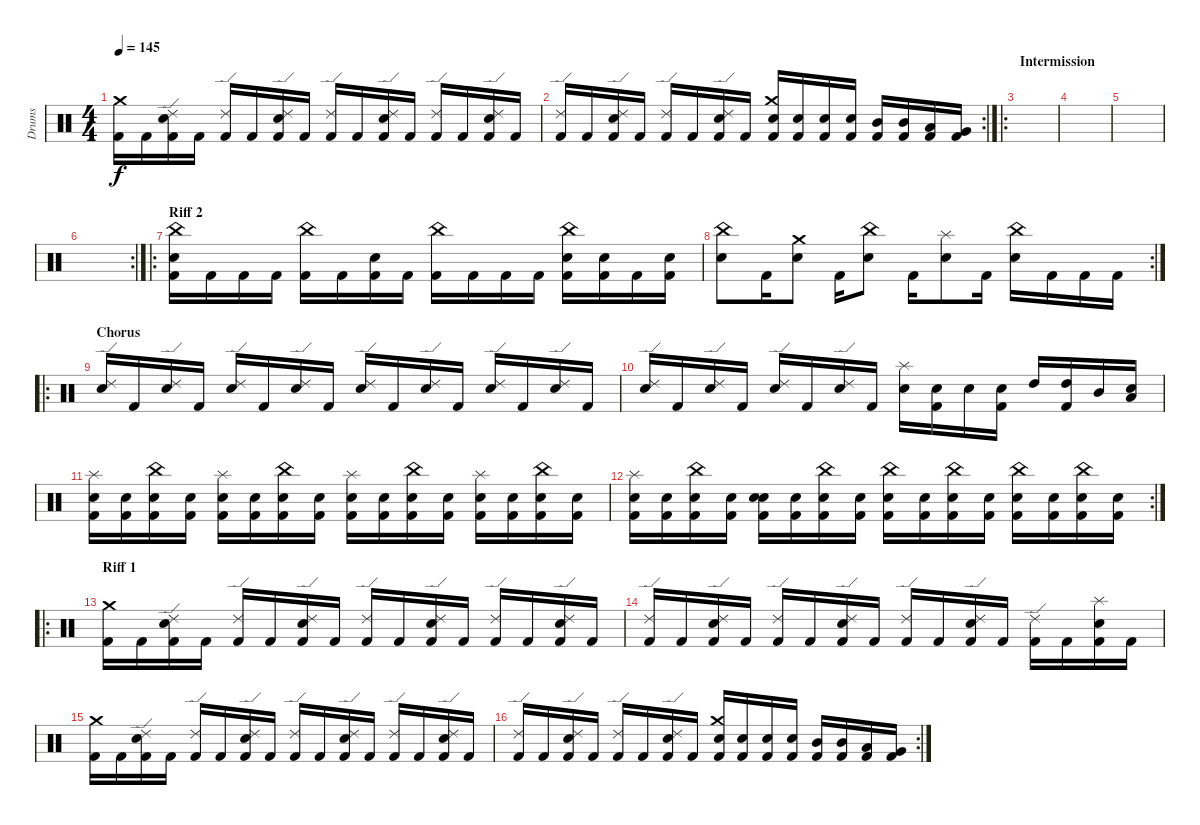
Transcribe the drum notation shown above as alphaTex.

\track ("Drums" "Drums") {instrument percussion}
\staff {score}
\articulation defaults
\ts (4 4)
\tempo 145
\clef neutral
\ks c
("Kick (hit) 2" "Crash medium (hit)").16{dy f} "Kick (hit) 2".16 ("Kick (hit) 2" "Snare (hit) 2" "Ride (edge) 2").16 "Kick (hit) 2".16 ("Kick (hit) 2" "Ride (edge) 2").16 "Kick (hit) 2".16 ("Kick (hit) 2" "Snare (hit) 2" "Ride (edge) 2").16 "Kick (hit) 2".16 ("Kick (hit) 2" "Ride (edge) 2").16 "Kick (hit) 2".16 ("Kick (hit) 2" "Snare (hit) 2" "Ride (edge) 2").16 "Kick (hit) 2".16 ("Kick (hit) 2" "Ride (edge) 2").16 "Kick (hit) 2".16 ("Kick (hit) 2" "Snare (hit) 2" "Ride (edge) 2").16 "Kick (hit) 2".16 |
\rc 2
("Kick (hit) 2" "Ride (edge) 2").16 "Kick (hit) 2".16 ("Kick (hit) 2" "Snare (hit) 2" "Ride (edge) 2").16 "Kick (hit) 2".16 ("Kick (hit) 2" "Ride (edge) 2").16 "Kick (hit) 2".16 ("Kick (hit) 2" "Snare (hit) 2" "Ride (edge) 2").16 "Kick (hit) 2".16 ("Kick (hit) 2" "Snare (hit) 2" "Crash medium (hit)").16 ("Kick (hit) 2" "Snare (hit) 2").16 ("Kick (hit) 2" "Snare (hit) 2").16 ("Kick (hit) 2" "Snare (hit) 2").16 ("Kick (hit) 2" "Mid Tom (hit)").16 ("Kick (hit) 2" "Mid Tom (hit)").16 ("Kick (hit) 2" "Low Tom (hit)").16 ("Kick (hit) 2" "Very Low Tom (hit)").16 |
\ro
\section ("" "Intermission")
|
|
|
\rc 2
|
\ro
\section ("" "Riff 2")
("Kick (hit) 2" "Snare (hit) 2" "China (hit)").16 "Kick (hit) 2".16 "Kick (hit) 2".16 "Kick (hit) 2".16 ("Kick (hit) 2" "China (hit)").16 "Kick (hit) 2".16 ("Kick (hit) 2" "Snare (hit) 2").16 "Kick (hit) 2".16 ("Kick (hit) 2" "China (hit)").16 "Kick (hit) 2".16 "Kick (hit) 2".16 "Kick (hit) 2".16 ("Kick (hit) 2" "Snare (hit) 2" "China (hit)").16 ("Kick (hit) 2" "Snare (hit) 2").16 "Kick (hit) 2".16 ("Kick (hit) 2" "Snare (hit) 2").16 |
\rc 2
("Snare (hit) 2" "China (hit)").8 "Kick (hit) 2".16 ("Snare (hit) 2" "Crash medium (hit)").8 "Kick (hit) 2".16 ("Snare (hit) 2" "China (hit)").8 "Kick (hit) 2".16 ("Splash (hit)" "Snare (hit) 2").8 "Kick (hit) 2".16 ("China (hit)" "Snare (hit) 2").16 "Kick (hit) 2".16 "Kick (hit) 2".16 "Kick (hit) 2".16 |
\ro
\section ("" "Chorus")
("Snare (hit) 2" "Ride (edge) 2").16 "Kick (hit) 2".16 ("Snare (hit) 2" "Ride (edge) 2").16 "Kick (hit) 2".16 ("Snare (hit) 2" "Ride (edge) 2").16 "Kick (hit) 2".16 ("Snare (hit) 2" "Ride (edge) 2").16 "Kick (hit) 2".16 ("Snare (hit) 2" "Ride (edge) 2").16 "Kick (hit) 2".16 ("Snare (hit) 2" "Ride (edge) 2").16 "Kick (hit) 2".16 ("Snare (hit) 2" "Ride (edge) 2").16 "Kick (hit) 2".16 ("Snare (hit) 2" "Ride (edge) 2").16 "Kick (hit) 2".16 |
("Snare (hit) 2" "Ride (edge) 2").16 "Kick (hit) 2".16 ("Snare (hit) 2" "Ride (edge) 2").16 "Kick (hit) 2".16 ("Snare (hit) 2" "Ride (edge) 2").16 "Kick (hit) 2".16 ("Snare (hit) 2" "Ride (edge) 2").16 "Kick (hit) 2".16 ("Snare (hit) 2" "Splash (hit)").16 ("Kick (hit) 2" "Snare (hit) 2").16 "Snare (hit) 2".16 ("Kick (hit) 2" "Snare (hit) 2").16 "High Tom (hit)".16 ("Kick (hit) 2" "High Tom (hit)").16 "Mid Tom (hit)".16 ("Snare (hit)" "Low Tom (hit)").16 |
("Kick (hit) 2" "Snare (hit) 2" "Splash (hit)").16 ("Kick (hit) 2" "Snare (hit) 2").16 ("Kick (hit) 2" "Snare (hit) 2" "China (hit)").16 ("Kick (hit) 2" "Snare (hit) 2").16 ("Kick (hit) 2" "Snare (hit) 2" "Splash (hit)").16 ("Kick (hit) 2" "Snare (hit) 2").16 ("Kick (hit) 2" "Snare (hit) 2" "China (hit)").16 ("Kick (hit) 2" "Snare (hit) 2").16 ("Kick (hit) 2" "Snare (hit) 2" "Splash (hit)").16 ("Kick (hit) 2" "Snare (hit) 2").16 ("Kick (hit) 2" "Snare (hit) 2" "China (hit)").16 ("Kick (hit) 2" "Snare (hit) 2").16 ("Kick (hit) 2" "Snare (hit) 2" "Splash (hit)").16 ("Kick (hit) 2" "Snare (hit) 2").16 ("Kick (hit) 2" "Snare (hit) 2" "China (hit)").16 ("Kick (hit) 2" "Snare (hit) 2").16 |
\rc 2
("Kick (hit) 2" "Snare (hit) 2" "Splash (hit)").16 ("Kick (hit) 2" "Snare (hit) 2").16 ("Kick (hit) 2" "Snare (hit) 2" "China (hit)").16 ("Kick (hit) 2" "Snare (hit) 2").16 ("Kick (hit) 2" "Snare (hit) 2" "Snare (hit)").16 ("Kick (hit) 2" "Snare (hit) 2").16 ("Kick (hit) 2" "Snare (hit) 2" "China (hit)").16 ("Kick (hit) 2" "Snare (hit) 2").16 ("Kick (hit) 2" "Snare (hit) 2" "China (hit)").16 ("Kick (hit) 2" "Snare (hit) 2").16 ("Kick (hit) 2" "Snare (hit) 2" "China (hit)").16 ("Kick (hit) 2" "Snare (hit) 2").16 ("Kick (hit) 2" "Snare (hit) 2" "China (hit)").16 ("Kick (hit) 2" "Snare (hit) 2").16 ("Kick (hit) 2" "Snare (hit) 2" "China (hit)").16 ("Kick (hit) 2" "Snare (hit) 2").16 |
\ro
\section ("" "Riff 1")
("Kick (hit) 2" "Crash medium (hit)").16 "Kick (hit) 2".16 ("Kick (hit) 2" "Snare (hit) 2" "Ride (edge) 2").16 "Kick (hit) 2".16 ("Kick (hit) 2" "Ride (edge) 2").16 "Kick (hit) 2".16 ("Kick (hit) 2" "Snare (hit) 2" "Ride (edge) 2").16 "Kick (hit) 2".16 ("Kick (hit) 2" "Ride (edge) 2").16 "Kick (hit) 2".16 ("Kick (hit) 2" "Snare (hit) 2" "Ride (edge) 2").16 "Kick (hit) 2".16 ("Kick (hit) 2" "Ride (edge) 2").16 "Kick (hit) 2".16 ("Kick (hit) 2" "Snare (hit) 2" "Ride (edge) 2").16 "Kick (hit) 2".16 |
("Kick (hit) 2" "Ride (edge) 2").16 "Kick (hit) 2".16 ("Kick (hit) 2" "Snare (hit) 2" "Ride (edge) 2").16 "Kick (hit) 2".16 ("Kick (hit) 2" "Ride (edge) 2").16 "Kick (hit) 2".16 ("Kick (hit) 2" "Snare (hit) 2" "Ride (edge) 2").16 "Kick (hit) 2".16 ("Kick (hit) 2" "Ride (edge) 2").16 "Kick (hit) 2".16 ("Kick (hit) 2" "Snare (hit) 2" "Ride (edge) 2").16 "Kick (hit) 2".16 ("Kick (hit) 2" "Ride (edge) 2").16 "Kick (hit) 2".16 ("Kick (hit) 2" "Snare (hit) 2" "Splash (hit)").16 "Kick (hit) 2".16 |
("Kick (hit) 2" "Crash medium (hit)").16 "Kick (hit) 2".16 ("Kick (hit) 2" "Snare (hit) 2" "Ride (edge) 2").16 "Kick (hit) 2".16 ("Kick (hit) 2" "Ride (edge) 2").16 "Kick (hit) 2".16 ("Kick (hit) 2" "Snare (hit) 2" "Ride (edge) 2").16 "Kick (hit) 2".16 ("Kick (hit) 2" "Ride (edge) 2").16 "Kick (hit) 2".16 ("Kick (hit) 2" "Snare (hit) 2" "Ride (edge) 2").16 "Kick (hit) 2".16 ("Kick (hit) 2" "Ride (edge) 2").16 "Kick (hit) 2".16 ("Kick (hit) 2" "Snare (hit) 2" "Ride (edge) 2").16 "Kick (hit) 2".16 |
\rc 2
("Kick (hit) 2" "Ride (edge) 2").16 "Kick (hit) 2".16 ("Kick (hit) 2" "Snare (hit) 2" "Ride (edge) 2").16 "Kick (hit) 2".16 ("Kick (hit) 2" "Ride (edge) 2").16 "Kick (hit) 2".16 ("Kick (hit) 2" "Snare (hit) 2" "Ride (edge) 2").16 "Kick (hit) 2".16 ("Kick (hit) 2" "Snare (hit) 2" "Crash medium (hit)").16 ("Kick (hit) 2" "Snare (hit) 2").16 ("Kick (hit) 2" "Snare (hit) 2").16 ("Kick (hit) 2" "Snare (hit) 2").16 ("Kick (hit) 2" "Mid Tom (hit)").16 ("Kick (hit) 2" "Mid Tom (hit)").16 ("Kick (hit) 2" "Low Tom (hit)").16 ("Kick (hit) 2" "Very Low Tom (hit)").16
